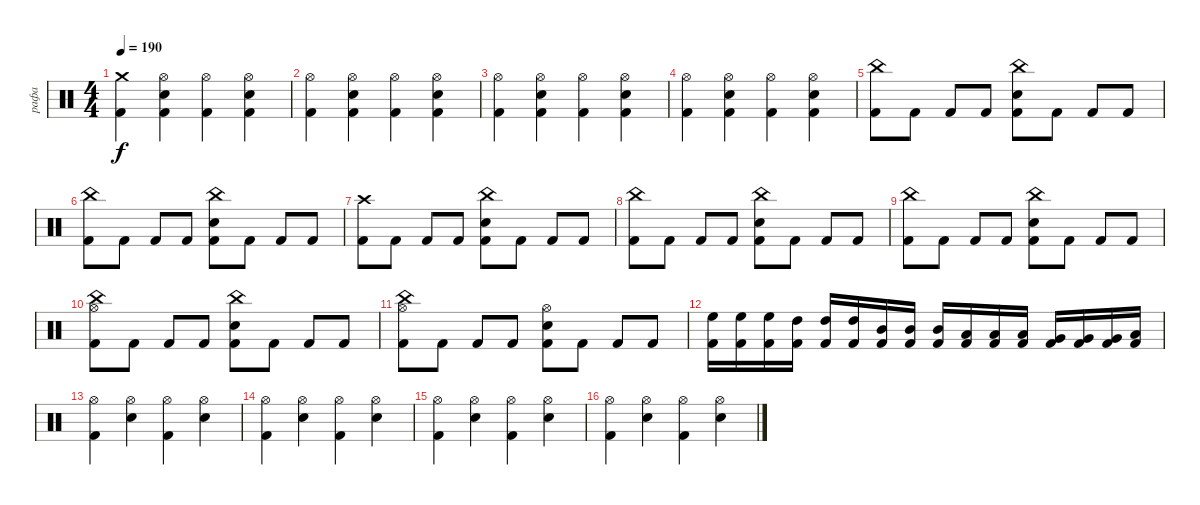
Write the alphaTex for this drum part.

\track ("рафа" "рафа") {instrument percussion}
\staff {score}
\articulation defaults
\ts (4 4)
\tempo 190
\clef neutral
\ks c
("Kick (hit) 2" "Crash medium (hit)").4{dy f} ("Kick (hit) 2" "Snare (hit) 2" "Hi-Hat (open)").4 ("Kick (hit) 2" "Hi-Hat (open)").4 ("Kick (hit) 2" "Snare (hit) 2" "Hi-Hat (open)").4 |
("Kick (hit) 2" "Hi-Hat (open)").4 ("Kick (hit) 2" "Snare (hit) 2" "Hi-Hat (open)").4 ("Kick (hit) 2" "Hi-Hat (open)").4 ("Kick (hit) 2" "Snare (hit) 2" "Hi-Hat (open)").4 |
("Kick (hit) 2" "Hi-Hat (open)").4 ("Kick (hit) 2" "Snare (hit) 2" "Hi-Hat (open)").4 ("Kick (hit) 2" "Hi-Hat (open)").4 ("Kick (hit) 2" "Snare (hit) 2" "Hi-Hat (open)").4 |
("Kick (hit) 2" "Hi-Hat (open)").4 ("Kick (hit) 2" "Snare (hit) 2" "Hi-Hat (open)").4 ("Kick (hit) 2" "Hi-Hat (open)").4 ("Kick (hit) 2" "Snare (hit) 2" "Hi-Hat (open)").4 |
("Kick (hit) 2" "China (hit)").8 "Kick (hit) 2".8 "Kick (hit) 2".8 "Kick (hit) 2".8 ("Kick (hit) 2" "Snare (hit) 2" "China (hit)").8 "Kick (hit) 2".8 "Kick (hit) 2".8 "Kick (hit) 2".8 |
("Kick (hit) 2" "China (hit)").8 "Kick (hit) 2".8 "Kick (hit) 2".8 "Kick (hit) 2".8 ("Kick (hit) 2" "Snare (hit) 2" "China (hit)").8 "Kick (hit) 2".8 "Kick (hit) 2".8 "Kick (hit) 2".8 |
("Kick (hit) 2" "Crash high (hit)").8 "Kick (hit) 2".8 "Kick (hit) 2".8 "Kick (hit) 2".8 ("Kick (hit) 2" "Snare (hit) 2" "China (hit)").8 "Kick (hit) 2".8 "Kick (hit) 2".8 "Kick (hit) 2".8 |
("Kick (hit) 2" "China (hit)").8 "Kick (hit) 2".8 "Kick (hit) 2".8 "Kick (hit) 2".8 ("Kick (hit) 2" "Snare (hit) 2" "China (hit)").8 "Kick (hit) 2".8 "Kick (hit) 2".8 "Kick (hit) 2".8 |
("Kick (hit) 2" "China (hit)").8 "Kick (hit) 2".8 "Kick (hit) 2".8 "Kick (hit) 2".8 ("Kick (hit) 2" "China (hit)" "Snare (hit) 2").8 "Kick (hit) 2".8 "Kick (hit) 2".8 "Kick (hit) 2".8 |
("Kick (hit) 2" "China (hit)" "Hi-Hat (open)").8 "Kick (hit) 2".8 "Kick (hit) 2".8 "Kick (hit) 2".8 ("Kick (hit) 2" "Snare (hit) 2" "China (hit)").8 "Kick (hit) 2".8 "Kick (hit) 2".8 "Kick (hit) 2".8 |
("Kick (hit) 2" "China (hit)" "Hi-Hat (open)").8 "Kick (hit) 2".8 "Kick (hit) 2".8 "Kick (hit) 2".8 ("Kick (hit) 2" "Snare (hit) 2" "Hi-Hat (open)").8 "Kick (hit) 2".8 "Kick (hit) 2".8 "Kick (hit) 2".8 |
("Kick (hit) 2" "High Floor Tom (hit)").16 ("Kick (hit) 2" "High Floor Tom (hit)").16 ("Kick (hit) 2" "High Floor Tom (hit)").16 ("Kick (hit) 2" "High Tom (hit)").16 ("Kick (hit) 2" "High Tom (hit)").16 ("Kick (hit) 2" "High Tom (hit)").16 ("Kick (hit) 2" "Mid Tom (hit)").16 ("Kick (hit) 2" "Mid Tom (hit)").16 ("Kick (hit) 2" "Mid Tom (hit)").16 ("Kick (hit) 2" "Low Tom (hit)").16 ("Kick (hit) 2" "Low Tom (hit)").16 ("Kick (hit) 2" "Low Tom (hit)").16 ("Kick (hit) 2" "Very Low Tom (hit)").16 ("Kick (hit) 2" "Very Low Tom (hit)").16 ("Kick (hit) 2" "Very Low Tom (hit)").16 ("Kick (hit) 2" "Low Floor Tom (hit)").16 |
("Kick (hit) 2" "Hi-Hat (open)").4 ("Snare (hit) 2" "Hi-Hat (open)").4 ("Kick (hit) 2" "Hi-Hat (open)").4 ("Snare (hit) 2" "Hi-Hat (open)").4 |
("Kick (hit) 2" "Hi-Hat (open)").4 ("Snare (hit) 2" "Hi-Hat (open)").4 ("Kick (hit) 2" "Hi-Hat (open)").4 ("Snare (hit) 2" "Hi-Hat (open)").4 |
("Kick (hit) 2" "Hi-Hat (open)").4 ("Snare (hit) 2" "Hi-Hat (open)").4 ("Kick (hit) 2" "Hi-Hat (open)").4 ("Snare (hit) 2" "Hi-Hat (open)").4 |
("Kick (hit) 2" "Hi-Hat (open)").4 ("Snare (hit) 2" "Hi-Hat (open)").4 ("Kick (hit) 2" "Hi-Hat (open)").4 ("Snare (hit) 2" "Hi-Hat (open)").4
